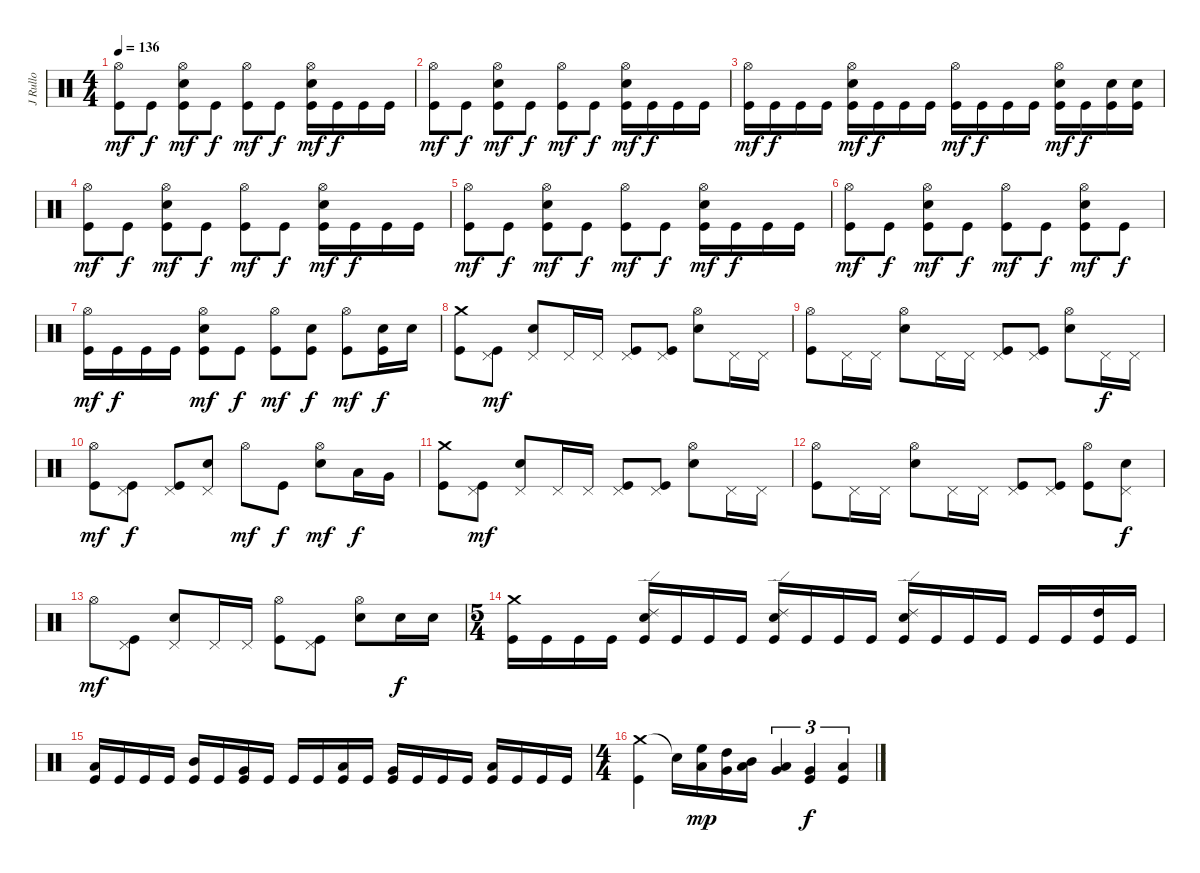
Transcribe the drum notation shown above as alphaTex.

\track ("J Rullo" "J Rullo") {instrument percussion}
\staff {score}
\articulation defaults
\ts (4 4)
\tempo 136
\clef neutral
\ks c
("Hi-Hat (open)" "Kick (hit)").8{dy mf} "Kick (hit)".8{dy f} ("Hi-Hat (open)" "Electric Snare (hit)" "Kick (hit)").8{dy mf} "Kick (hit)".8{dy f} ("Hi-Hat (open)" "Kick (hit)").8{dy mf} "Kick (hit)".8{dy f} ("Hi-Hat (open)" "Electric Snare (hit)" "Kick (hit)").16{dy mf} "Kick (hit)".16{dy f} "Kick (hit)".16 "Kick (hit)".16 |
("Hi-Hat (open)" "Kick (hit)").8{dy mf} "Kick (hit)".8{dy f} ("Hi-Hat (open)" "Electric Snare (hit)" "Kick (hit)").8{dy mf} "Kick (hit)".8{dy f} ("Hi-Hat (open)" "Kick (hit)").8{dy mf} "Kick (hit)".8{dy f} ("Hi-Hat (open)" "Electric Snare (hit)" "Kick (hit)").16{dy mf} "Kick (hit)".16{dy f} "Kick (hit)".16 "Kick (hit)".16 |
("Hi-Hat (open)" "Kick (hit)").16{dy mf} "Kick (hit)".16{dy f} "Kick (hit)".16 "Kick (hit)".16 ("Hi-Hat (open)" "Electric Snare (hit)" "Kick (hit)").16{dy mf} "Kick (hit)".16{dy f} "Kick (hit)".16 "Kick (hit)".16 ("Hi-Hat (open)" "Kick (hit)").16{dy mf} "Kick (hit)".16{dy f} "Kick (hit)".16 "Kick (hit)".16 ("Hi-Hat (open)" "Electric Snare (hit)" "Kick (hit)").16{dy mf} "Kick (hit)".16{dy f} ("Electric Snare (hit)" "Kick (hit)").16 ("Electric Snare (hit)" "Kick (hit)").16 |
("Hi-Hat (open)" "Kick (hit)").8{dy mf} "Kick (hit)".8{dy f} ("Hi-Hat (open)" "Electric Snare (hit)" "Kick (hit)").8{dy mf} "Kick (hit)".8{dy f} ("Hi-Hat (open)" "Kick (hit)").8{dy mf} "Kick (hit)".8{dy f} ("Hi-Hat (open)" "Electric Snare (hit)" "Kick (hit)").16{dy mf} "Kick (hit)".16{dy f} "Kick (hit)".16 "Kick (hit)".16 |
("Hi-Hat (open)" "Kick (hit)").8{dy mf} "Kick (hit)".8{dy f} ("Hi-Hat (open)" "Electric Snare (hit)" "Kick (hit)").8{dy mf} "Kick (hit)".8{dy f} ("Hi-Hat (open)" "Kick (hit)").8{dy mf} "Kick (hit)".8{dy f} ("Hi-Hat (open)" "Electric Snare (hit)" "Kick (hit)").16{dy mf} "Kick (hit)".16{dy f} "Kick (hit)".16 "Kick (hit)".16 |
("Hi-Hat (open)" "Kick (hit)").8{dy mf} "Kick (hit)".8{dy f} ("Hi-Hat (open)" "Electric Snare (hit)" "Kick (hit)").8{dy mf} "Kick (hit)".8{dy f} ("Hi-Hat (open)" "Kick (hit)").8{dy mf} "Kick (hit)".8{dy f} ("Hi-Hat (open)" "Electric Snare (hit)" "Kick (hit)").8{dy mf} "Kick (hit)".8{dy f} |
("Hi-Hat (open)" "Kick (hit)").16{dy mf} "Kick (hit)".16{dy f} "Kick (hit)".16 "Kick (hit)".16 ("Hi-Hat (open)" "Electric Snare (hit)" "Kick (hit)").8{dy mf} "Kick (hit)".8{dy f} ("Hi-Hat (open)" "Kick (hit)").8{dy mf} ("Electric Snare (hit)" "Kick (hit)").8{dy f} ("Hi-Hat (open)" "Kick (hit)").8{dy mf} ("Electric Snare (hit)" "Kick (hit)").16{dy f} "Electric Snare (hit)".16 |
("Crash medium (hit)" "Kick (hit)").8 ("Pedal Hi-Hat (hit)" "Kick (hit)").8{dy mf} ("Pedal Hi-Hat (hit)" "Electric Snare (hit)").8 "Pedal Hi-Hat (hit)".16 "Pedal Hi-Hat (hit)".16 ("Pedal Hi-Hat (hit)" "Kick (hit)").8 ("Pedal Hi-Hat (hit)" "Kick (hit)").8 ("Hi-Hat (open)" "Electric Snare (hit)").8 "Pedal Hi-Hat (hit)".16 "Pedal Hi-Hat (hit)".16 |
("Hi-Hat (open)" "Kick (hit)").8 "Pedal Hi-Hat (hit)".16 "Pedal Hi-Hat (hit)".16 ("Hi-Hat (open)" "Electric Snare (hit)").8 "Pedal Hi-Hat (hit)".16 "Pedal Hi-Hat (hit)".16 ("Pedal Hi-Hat (hit)" "Kick (hit)").8 ("Pedal Hi-Hat (hit)" "Kick (hit)").8 ("Hi-Hat (open)" "Electric Snare (hit)").8 "Pedal Hi-Hat (hit)".16{dy f} "Pedal Hi-Hat (hit)".16 |
("Hi-Hat (open)" "Kick (hit)").8{dy mf} ("Pedal Hi-Hat (hit)" "Kick (hit)").8{dy f} ("Pedal Hi-Hat (hit)" "Kick (hit)").8 ("Pedal Hi-Hat (hit)" "Electric Snare (hit)").8 "Hi-Hat (open)".8{dy mf} "Kick (hit)".8{dy f} ("Hi-Hat (open)" "Electric Snare (hit)").8{dy mf} "Low Tom (hit)".16{dy f} "Very Low Tom (hit)".16 |
("Crash medium (hit)" "Kick (hit)").8 ("Pedal Hi-Hat (hit)" "Kick (hit)").8{dy mf} ("Pedal Hi-Hat (hit)" "Electric Snare (hit)").8 "Pedal Hi-Hat (hit)".16 "Pedal Hi-Hat (hit)".16 ("Pedal Hi-Hat (hit)" "Kick (hit)").8 ("Pedal Hi-Hat (hit)" "Kick (hit)").8 ("Hi-Hat (open)" "Electric Snare (hit)").8 "Pedal Hi-Hat (hit)".16 "Pedal Hi-Hat (hit)".16 |
("Hi-Hat (open)" "Kick (hit)").8 "Pedal Hi-Hat (hit)".16 "Pedal Hi-Hat (hit)".16 ("Hi-Hat (open)" "Electric Snare (hit)").8 "Pedal Hi-Hat (hit)".16 "Pedal Hi-Hat (hit)".16 ("Pedal Hi-Hat (hit)" "Kick (hit)").8 ("Pedal Hi-Hat (hit)" "Kick (hit)").8 ("Hi-Hat (open)" "Kick (hit)").8 ("Pedal Hi-Hat (hit)" "Electric Snare (hit)").8{dy f} |
"Hi-Hat (open)".8{dy mf} ("Pedal Hi-Hat (hit)" "Kick (hit)").8 ("Pedal Hi-Hat (hit)" "Electric Snare (hit)").8 "Pedal Hi-Hat (hit)".16 "Pedal Hi-Hat (hit)".16 ("Hi-Hat (open)" "Kick (hit)").8 ("Pedal Hi-Hat (hit)" "Kick (hit)").8 ("Hi-Hat (open)" "Electric Snare (hit)").8 "Electric Snare (hit)".16{dy f} "Electric Snare (hit)".16 |
\ts (5 4)
("Crash medium (hit)" "Kick (hit)").16 "Kick (hit)".16 "Kick (hit)".16 "Kick (hit)".16 ("Ride (edge) 2" "Electric Snare (hit)" "Kick (hit)").16 "Kick (hit)".16 "Kick (hit)".16 "Kick (hit)".16 ("Ride (edge) 2" "Electric Snare (hit)" "Kick (hit)").16 "Kick (hit)".16 "Kick (hit)".16 "Kick (hit)".16 ("Ride (edge) 2" "Electric Snare (hit)" "Kick (hit)").16 "Kick (hit)".16 "Kick (hit)".16 "Kick (hit)".16 "Kick (hit)".16 "Kick (hit)".16 ("High Tom (hit)" "Kick (hit)").16 "Kick (hit)".16 |
("Low Tom (hit)" "Kick (hit)").16 "Kick (hit)".16 "Kick (hit)".16 "Kick (hit)".16 ("Mid Tom (hit)" "Kick (hit)").16 "Kick (hit)".16 ("Very Low Tom (hit)" "Kick (hit)").16 "Kick (hit)".16 "Kick (hit)".16 "Kick (hit)".16 ("Low Tom (hit)" "Kick (hit)").16 "Kick (hit)".16 ("Very Low Tom (hit)" "Kick (hit)").16 "Kick (hit)".16 "Kick (hit)".16 "Kick (hit)".16 ("Low Floor Tom (hit)" "Kick (hit)").16 "Kick (hit)".16 "Kick (hit)".16 "Kick (hit)".16 |
\ts (4 4)
("Crash medium (hit)" "Kick (hit)").4 "Snare (hit)"{t}.16 ("High Floor Tom (hit)" "Low Tom (hit)").16{dy mp} ("High Tom (hit)" "Very Low Tom (hit)").16 ("Mid Tom (hit)" "Low Floor Tom (hit)").16 ("Low Tom (hit)" "Very Low Tom (hit)").4{tu (3 2)} ("Very Low Tom (hit)" "Kick (hit)").4{tu (3 2) dy f} ("Low Floor Tom (hit)" "Kick (hit)").4{tu (3 2)}
